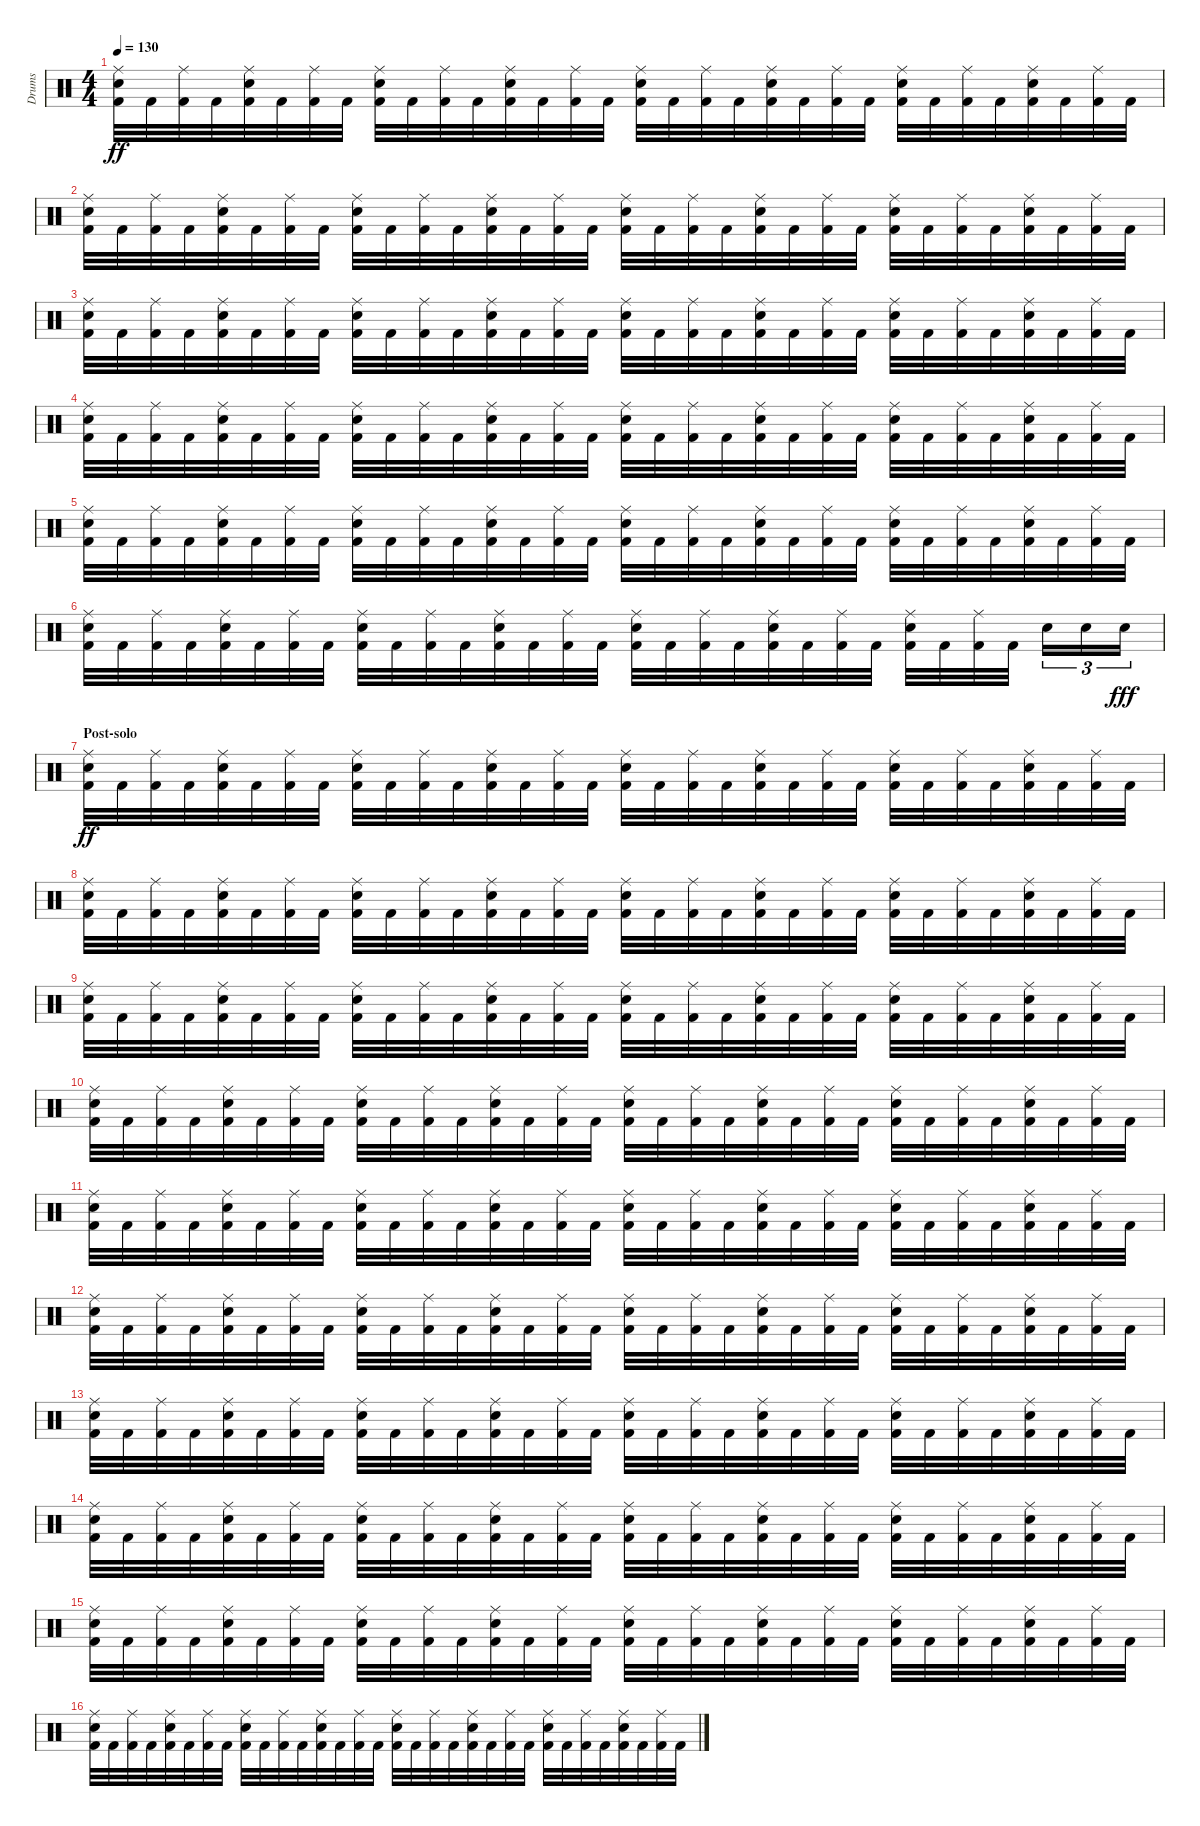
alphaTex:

\track ("Drums" "Drums") {instrument percussion}
\staff {score}
\articulation defaults
\ts (4 4)
\tempo 130
\clef neutral
\ks c
("Electric Snare (hit)" "Ride (middle)" "Kick (hit) 2").32{dy ff} "Kick (hit) 2".32 ("Ride (middle)" "Kick (hit) 2").32 "Kick (hit) 2".32 ("Electric Snare (hit)" "Ride (middle)" "Kick (hit) 2").32 "Kick (hit) 2".32 ("Ride (middle)" "Kick (hit) 2").32 "Kick (hit) 2".32 ("Electric Snare (hit)" "Ride (middle)" "Kick (hit) 2").32 "Kick (hit) 2".32 ("Ride (middle)" "Kick (hit) 2").32 "Kick (hit) 2".32 ("Electric Snare (hit)" "Ride (middle)" "Kick (hit) 2").32 "Kick (hit) 2".32 ("Ride (middle)" "Kick (hit) 2").32 "Kick (hit) 2".32 ("Electric Snare (hit)" "Ride (middle)" "Kick (hit) 2").32 "Kick (hit) 2".32 ("Ride (middle)" "Kick (hit) 2").32 "Kick (hit) 2".32 ("Electric Snare (hit)" "Ride (middle)" "Kick (hit) 2").32 "Kick (hit) 2".32 ("Ride (middle)" "Kick (hit) 2").32 "Kick (hit) 2".32 ("Electric Snare (hit)" "Ride (middle)" "Kick (hit) 2").32 "Kick (hit) 2".32 ("Ride (middle)" "Kick (hit) 2").32 "Kick (hit) 2".32 ("Electric Snare (hit)" "Ride (middle)" "Kick (hit) 2").32 "Kick (hit) 2".32 ("Ride (middle)" "Kick (hit) 2").32 "Kick (hit) 2".32 |
("Electric Snare (hit)" "Ride (middle)" "Kick (hit) 2").32 "Kick (hit) 2".32 ("Ride (middle)" "Kick (hit) 2").32 "Kick (hit) 2".32 ("Electric Snare (hit)" "Ride (middle)" "Kick (hit) 2").32 "Kick (hit) 2".32 ("Ride (middle)" "Kick (hit) 2").32 "Kick (hit) 2".32 ("Electric Snare (hit)" "Ride (middle)" "Kick (hit) 2").32 "Kick (hit) 2".32 ("Ride (middle)" "Kick (hit) 2").32 "Kick (hit) 2".32 ("Electric Snare (hit)" "Ride (middle)" "Kick (hit) 2").32 "Kick (hit) 2".32 ("Ride (middle)" "Kick (hit) 2").32 "Kick (hit) 2".32 ("Electric Snare (hit)" "Ride (middle)" "Kick (hit) 2").32 "Kick (hit) 2".32 ("Ride (middle)" "Kick (hit) 2").32 "Kick (hit) 2".32 ("Electric Snare (hit)" "Ride (middle)" "Kick (hit) 2").32 "Kick (hit) 2".32 ("Ride (middle)" "Kick (hit) 2").32 "Kick (hit) 2".32 ("Electric Snare (hit)" "Ride (middle)" "Kick (hit) 2").32 "Kick (hit) 2".32 ("Ride (middle)" "Kick (hit) 2").32 "Kick (hit) 2".32 ("Electric Snare (hit)" "Ride (middle)" "Kick (hit) 2").32 "Kick (hit) 2".32 ("Ride (middle)" "Kick (hit) 2").32 "Kick (hit) 2".32 |
("Electric Snare (hit)" "Ride (middle)" "Kick (hit) 2").32 "Kick (hit) 2".32 ("Ride (middle)" "Kick (hit) 2").32 "Kick (hit) 2".32 ("Electric Snare (hit)" "Ride (middle)" "Kick (hit) 2").32 "Kick (hit) 2".32 ("Ride (middle)" "Kick (hit) 2").32 "Kick (hit) 2".32 ("Electric Snare (hit)" "Ride (middle)" "Kick (hit) 2").32 "Kick (hit) 2".32 ("Ride (middle)" "Kick (hit) 2").32 "Kick (hit) 2".32 ("Electric Snare (hit)" "Ride (middle)" "Kick (hit) 2").32 "Kick (hit) 2".32 ("Ride (middle)" "Kick (hit) 2").32 "Kick (hit) 2".32 ("Electric Snare (hit)" "Ride (middle)" "Kick (hit) 2").32 "Kick (hit) 2".32 ("Ride (middle)" "Kick (hit) 2").32 "Kick (hit) 2".32 ("Electric Snare (hit)" "Ride (middle)" "Kick (hit) 2").32 "Kick (hit) 2".32 ("Ride (middle)" "Kick (hit) 2").32 "Kick (hit) 2".32 ("Electric Snare (hit)" "Ride (middle)" "Kick (hit) 2").32 "Kick (hit) 2".32 ("Ride (middle)" "Kick (hit) 2").32 "Kick (hit) 2".32 ("Electric Snare (hit)" "Ride (middle)" "Kick (hit) 2").32 "Kick (hit) 2".32 ("Ride (middle)" "Kick (hit) 2").32 "Kick (hit) 2".32 |
("Electric Snare (hit)" "Ride (middle)" "Kick (hit) 2").32 "Kick (hit) 2".32 ("Ride (middle)" "Kick (hit) 2").32 "Kick (hit) 2".32 ("Electric Snare (hit)" "Ride (middle)" "Kick (hit) 2").32 "Kick (hit) 2".32 ("Ride (middle)" "Kick (hit) 2").32 "Kick (hit) 2".32 ("Electric Snare (hit)" "Ride (middle)" "Kick (hit) 2").32 "Kick (hit) 2".32 ("Ride (middle)" "Kick (hit) 2").32 "Kick (hit) 2".32 ("Electric Snare (hit)" "Ride (middle)" "Kick (hit) 2").32 "Kick (hit) 2".32 ("Ride (middle)" "Kick (hit) 2").32 "Kick (hit) 2".32 ("Electric Snare (hit)" "Ride (middle)" "Kick (hit) 2").32 "Kick (hit) 2".32 ("Ride (middle)" "Kick (hit) 2").32 "Kick (hit) 2".32 ("Electric Snare (hit)" "Ride (middle)" "Kick (hit) 2").32 "Kick (hit) 2".32 ("Ride (middle)" "Kick (hit) 2").32 "Kick (hit) 2".32 ("Electric Snare (hit)" "Ride (middle)" "Kick (hit) 2").32 "Kick (hit) 2".32 ("Ride (middle)" "Kick (hit) 2").32 "Kick (hit) 2".32 ("Electric Snare (hit)" "Ride (middle)" "Kick (hit) 2").32 "Kick (hit) 2".32 ("Ride (middle)" "Kick (hit) 2").32 "Kick (hit) 2".32 |
("Electric Snare (hit)" "Ride (middle)" "Kick (hit) 2").32 "Kick (hit) 2".32 ("Ride (middle)" "Kick (hit) 2").32 "Kick (hit) 2".32 ("Electric Snare (hit)" "Ride (middle)" "Kick (hit) 2").32 "Kick (hit) 2".32 ("Ride (middle)" "Kick (hit) 2").32 "Kick (hit) 2".32 ("Electric Snare (hit)" "Ride (middle)" "Kick (hit) 2").32 "Kick (hit) 2".32 ("Ride (middle)" "Kick (hit) 2").32 "Kick (hit) 2".32 ("Electric Snare (hit)" "Ride (middle)" "Kick (hit) 2").32 "Kick (hit) 2".32 ("Ride (middle)" "Kick (hit) 2").32 "Kick (hit) 2".32 ("Electric Snare (hit)" "Ride (middle)" "Kick (hit) 2").32 "Kick (hit) 2".32 ("Ride (middle)" "Kick (hit) 2").32 "Kick (hit) 2".32 ("Electric Snare (hit)" "Ride (middle)" "Kick (hit) 2").32 "Kick (hit) 2".32 ("Ride (middle)" "Kick (hit) 2").32 "Kick (hit) 2".32 ("Electric Snare (hit)" "Ride (middle)" "Kick (hit) 2").32 "Kick (hit) 2".32 ("Ride (middle)" "Kick (hit) 2").32 "Kick (hit) 2".32 ("Electric Snare (hit)" "Ride (middle)" "Kick (hit) 2").32 "Kick (hit) 2".32 ("Ride (middle)" "Kick (hit) 2").32 "Kick (hit) 2".32 |
("Electric Snare (hit)" "Ride (middle)" "Kick (hit) 2").32 "Kick (hit) 2".32 ("Ride (middle)" "Kick (hit) 2").32 "Kick (hit) 2".32 ("Electric Snare (hit)" "Ride (middle)" "Kick (hit) 2").32 "Kick (hit) 2".32 ("Ride (middle)" "Kick (hit) 2").32 "Kick (hit) 2".32 ("Electric Snare (hit)" "Ride (middle)" "Kick (hit) 2").32 "Kick (hit) 2".32 ("Ride (middle)" "Kick (hit) 2").32 "Kick (hit) 2".32 ("Electric Snare (hit)" "Ride (middle)" "Kick (hit) 2").32 "Kick (hit) 2".32 ("Ride (middle)" "Kick (hit) 2").32 "Kick (hit) 2".32 ("Electric Snare (hit)" "Ride (middle)" "Kick (hit) 2").32 "Kick (hit) 2".32 ("Ride (middle)" "Kick (hit) 2").32 "Kick (hit) 2".32 ("Electric Snare (hit)" "Ride (middle)" "Kick (hit) 2").32 "Kick (hit) 2".32 ("Ride (middle)" "Kick (hit) 2").32 "Kick (hit) 2".32 ("Electric Snare (hit)" "Ride (middle)" "Kick (hit) 2").32 "Kick (hit) 2".32 ("Ride (middle)" "Kick (hit) 2").32 "Kick (hit) 2".32 "Electric Snare (hit)".16{tu (3 2)} "Electric Snare (hit)".16{tu (3 2)} "Electric Snare (hit)".16{tu (3 2) dy fff} |
\section ("" "Post-solo")
("Electric Snare (hit)" "Ride (middle)" "Kick (hit) 2").32{dy ff} "Kick (hit) 2".32 ("Ride (middle)" "Kick (hit) 2").32 "Kick (hit) 2".32 ("Electric Snare (hit)" "Ride (middle)" "Kick (hit) 2").32 "Kick (hit) 2".32 ("Ride (middle)" "Kick (hit) 2").32 "Kick (hit) 2".32 ("Electric Snare (hit)" "Ride (middle)" "Kick (hit) 2").32 "Kick (hit) 2".32 ("Ride (middle)" "Kick (hit) 2").32 "Kick (hit) 2".32 ("Electric Snare (hit)" "Ride (middle)" "Kick (hit) 2").32 "Kick (hit) 2".32 ("Ride (middle)" "Kick (hit) 2").32 "Kick (hit) 2".32 ("Electric Snare (hit)" "Ride (middle)" "Kick (hit) 2").32 "Kick (hit) 2".32 ("Ride (middle)" "Kick (hit) 2").32 "Kick (hit) 2".32 ("Electric Snare (hit)" "Ride (middle)" "Kick (hit) 2").32 "Kick (hit) 2".32 ("Ride (middle)" "Kick (hit) 2").32 "Kick (hit) 2".32 ("Electric Snare (hit)" "Ride (middle)" "Kick (hit) 2").32 "Kick (hit) 2".32 ("Ride (middle)" "Kick (hit) 2").32 "Kick (hit) 2".32 ("Electric Snare (hit)" "Ride (middle)" "Kick (hit) 2").32 "Kick (hit) 2".32 ("Ride (middle)" "Kick (hit) 2").32 "Kick (hit) 2".32 |
("Electric Snare (hit)" "Ride (middle)" "Kick (hit) 2").32 "Kick (hit) 2".32 ("Ride (middle)" "Kick (hit) 2").32 "Kick (hit) 2".32 ("Electric Snare (hit)" "Ride (middle)" "Kick (hit) 2").32 "Kick (hit) 2".32 ("Ride (middle)" "Kick (hit) 2").32 "Kick (hit) 2".32 ("Electric Snare (hit)" "Ride (middle)" "Kick (hit) 2").32 "Kick (hit) 2".32 ("Ride (middle)" "Kick (hit) 2").32 "Kick (hit) 2".32 ("Electric Snare (hit)" "Ride (middle)" "Kick (hit) 2").32 "Kick (hit) 2".32 ("Ride (middle)" "Kick (hit) 2").32 "Kick (hit) 2".32 ("Electric Snare (hit)" "Ride (middle)" "Kick (hit) 2").32 "Kick (hit) 2".32 ("Ride (middle)" "Kick (hit) 2").32 "Kick (hit) 2".32 ("Electric Snare (hit)" "Ride (middle)" "Kick (hit) 2").32 "Kick (hit) 2".32 ("Ride (middle)" "Kick (hit) 2").32 "Kick (hit) 2".32 ("Electric Snare (hit)" "Ride (middle)" "Kick (hit) 2").32 "Kick (hit) 2".32 ("Ride (middle)" "Kick (hit) 2").32 "Kick (hit) 2".32 ("Electric Snare (hit)" "Ride (middle)" "Kick (hit) 2").32 "Kick (hit) 2".32 ("Ride (middle)" "Kick (hit) 2").32 "Kick (hit) 2".32 |
("Electric Snare (hit)" "Ride (middle)" "Kick (hit) 2").32 "Kick (hit) 2".32 ("Ride (middle)" "Kick (hit) 2").32 "Kick (hit) 2".32 ("Electric Snare (hit)" "Ride (middle)" "Kick (hit) 2").32 "Kick (hit) 2".32 ("Ride (middle)" "Kick (hit) 2").32 "Kick (hit) 2".32 ("Electric Snare (hit)" "Ride (middle)" "Kick (hit) 2").32 "Kick (hit) 2".32 ("Ride (middle)" "Kick (hit) 2").32 "Kick (hit) 2".32 ("Electric Snare (hit)" "Ride (middle)" "Kick (hit) 2").32 "Kick (hit) 2".32 ("Ride (middle)" "Kick (hit) 2").32 "Kick (hit) 2".32 ("Electric Snare (hit)" "Ride (middle)" "Kick (hit) 2").32 "Kick (hit) 2".32 ("Ride (middle)" "Kick (hit) 2").32 "Kick (hit) 2".32 ("Electric Snare (hit)" "Ride (middle)" "Kick (hit) 2").32 "Kick (hit) 2".32 ("Ride (middle)" "Kick (hit) 2").32 "Kick (hit) 2".32 ("Electric Snare (hit)" "Ride (middle)" "Kick (hit) 2").32 "Kick (hit) 2".32 ("Ride (middle)" "Kick (hit) 2").32 "Kick (hit) 2".32 ("Electric Snare (hit)" "Ride (middle)" "Kick (hit) 2").32 "Kick (hit) 2".32 ("Ride (middle)" "Kick (hit) 2").32 "Kick (hit) 2".32 |
("Electric Snare (hit)" "Ride (middle)" "Kick (hit) 2").32 "Kick (hit) 2".32 ("Ride (middle)" "Kick (hit) 2").32 "Kick (hit) 2".32 ("Electric Snare (hit)" "Ride (middle)" "Kick (hit) 2").32 "Kick (hit) 2".32 ("Ride (middle)" "Kick (hit) 2").32 "Kick (hit) 2".32 ("Electric Snare (hit)" "Ride (middle)" "Kick (hit) 2").32 "Kick (hit) 2".32 ("Ride (middle)" "Kick (hit) 2").32 "Kick (hit) 2".32 ("Electric Snare (hit)" "Ride (middle)" "Kick (hit) 2").32 "Kick (hit) 2".32 ("Ride (middle)" "Kick (hit) 2").32 "Kick (hit) 2".32 ("Electric Snare (hit)" "Ride (middle)" "Kick (hit) 2").32 "Kick (hit) 2".32 ("Ride (middle)" "Kick (hit) 2").32 "Kick (hit) 2".32 ("Electric Snare (hit)" "Ride (middle)" "Kick (hit) 2").32 "Kick (hit) 2".32 ("Ride (middle)" "Kick (hit) 2").32 "Kick (hit) 2".32 ("Electric Snare (hit)" "Ride (middle)" "Kick (hit) 2").32 "Kick (hit) 2".32 ("Ride (middle)" "Kick (hit) 2").32 "Kick (hit) 2".32 ("Electric Snare (hit)" "Ride (middle)" "Kick (hit) 2").32 "Kick (hit) 2".32 ("Ride (middle)" "Kick (hit) 2").32 "Kick (hit) 2".32 |
("Electric Snare (hit)" "Ride (middle)" "Kick (hit) 2").32 "Kick (hit) 2".32 ("Ride (middle)" "Kick (hit) 2").32 "Kick (hit) 2".32 ("Electric Snare (hit)" "Ride (middle)" "Kick (hit) 2").32 "Kick (hit) 2".32 ("Ride (middle)" "Kick (hit) 2").32 "Kick (hit) 2".32 ("Electric Snare (hit)" "Ride (middle)" "Kick (hit) 2").32 "Kick (hit) 2".32 ("Ride (middle)" "Kick (hit) 2").32 "Kick (hit) 2".32 ("Electric Snare (hit)" "Ride (middle)" "Kick (hit) 2").32 "Kick (hit) 2".32 ("Ride (middle)" "Kick (hit) 2").32 "Kick (hit) 2".32 ("Electric Snare (hit)" "Ride (middle)" "Kick (hit) 2").32 "Kick (hit) 2".32 ("Ride (middle)" "Kick (hit) 2").32 "Kick (hit) 2".32 ("Electric Snare (hit)" "Ride (middle)" "Kick (hit) 2").32 "Kick (hit) 2".32 ("Ride (middle)" "Kick (hit) 2").32 "Kick (hit) 2".32 ("Electric Snare (hit)" "Ride (middle)" "Kick (hit) 2").32 "Kick (hit) 2".32 ("Ride (middle)" "Kick (hit) 2").32 "Kick (hit) 2".32 ("Electric Snare (hit)" "Ride (middle)" "Kick (hit) 2").32 "Kick (hit) 2".32 ("Ride (middle)" "Kick (hit) 2").32 "Kick (hit) 2".32 |
("Electric Snare (hit)" "Ride (middle)" "Kick (hit) 2").32 "Kick (hit) 2".32 ("Ride (middle)" "Kick (hit) 2").32 "Kick (hit) 2".32 ("Electric Snare (hit)" "Ride (middle)" "Kick (hit) 2").32 "Kick (hit) 2".32 ("Ride (middle)" "Kick (hit) 2").32 "Kick (hit) 2".32 ("Electric Snare (hit)" "Ride (middle)" "Kick (hit) 2").32 "Kick (hit) 2".32 ("Ride (middle)" "Kick (hit) 2").32 "Kick (hit) 2".32 ("Electric Snare (hit)" "Ride (middle)" "Kick (hit) 2").32 "Kick (hit) 2".32 ("Ride (middle)" "Kick (hit) 2").32 "Kick (hit) 2".32 ("Electric Snare (hit)" "Ride (middle)" "Kick (hit) 2").32 "Kick (hit) 2".32 ("Ride (middle)" "Kick (hit) 2").32 "Kick (hit) 2".32 ("Electric Snare (hit)" "Ride (middle)" "Kick (hit) 2").32 "Kick (hit) 2".32 ("Ride (middle)" "Kick (hit) 2").32 "Kick (hit) 2".32 ("Electric Snare (hit)" "Ride (middle)" "Kick (hit) 2").32 "Kick (hit) 2".32 ("Ride (middle)" "Kick (hit) 2").32 "Kick (hit) 2".32 ("Electric Snare (hit)" "Ride (middle)" "Kick (hit) 2").32 "Kick (hit) 2".32 ("Ride (middle)" "Kick (hit) 2").32 "Kick (hit) 2".32 |
("Electric Snare (hit)" "Ride (middle)" "Kick (hit) 2").32 "Kick (hit) 2".32 ("Ride (middle)" "Kick (hit) 2").32 "Kick (hit) 2".32 ("Electric Snare (hit)" "Ride (middle)" "Kick (hit) 2").32 "Kick (hit) 2".32 ("Ride (middle)" "Kick (hit) 2").32 "Kick (hit) 2".32 ("Electric Snare (hit)" "Ride (middle)" "Kick (hit) 2").32 "Kick (hit) 2".32 ("Ride (middle)" "Kick (hit) 2").32 "Kick (hit) 2".32 ("Electric Snare (hit)" "Ride (middle)" "Kick (hit) 2").32 "Kick (hit) 2".32 ("Ride (middle)" "Kick (hit) 2").32 "Kick (hit) 2".32 ("Electric Snare (hit)" "Ride (middle)" "Kick (hit) 2").32 "Kick (hit) 2".32 ("Ride (middle)" "Kick (hit) 2").32 "Kick (hit) 2".32 ("Electric Snare (hit)" "Ride (middle)" "Kick (hit) 2").32 "Kick (hit) 2".32 ("Ride (middle)" "Kick (hit) 2").32 "Kick (hit) 2".32 ("Electric Snare (hit)" "Ride (middle)" "Kick (hit) 2").32 "Kick (hit) 2".32 ("Ride (middle)" "Kick (hit) 2").32 "Kick (hit) 2".32 ("Electric Snare (hit)" "Ride (middle)" "Kick (hit) 2").32 "Kick (hit) 2".32 ("Ride (middle)" "Kick (hit) 2").32 "Kick (hit) 2".32 |
("Electric Snare (hit)" "Ride (middle)" "Kick (hit) 2").32 "Kick (hit) 2".32 ("Ride (middle)" "Kick (hit) 2").32 "Kick (hit) 2".32 ("Electric Snare (hit)" "Ride (middle)" "Kick (hit) 2").32 "Kick (hit) 2".32 ("Ride (middle)" "Kick (hit) 2").32 "Kick (hit) 2".32 ("Electric Snare (hit)" "Ride (middle)" "Kick (hit) 2").32 "Kick (hit) 2".32 ("Ride (middle)" "Kick (hit) 2").32 "Kick (hit) 2".32 ("Electric Snare (hit)" "Ride (middle)" "Kick (hit) 2").32 "Kick (hit) 2".32 ("Ride (middle)" "Kick (hit) 2").32 "Kick (hit) 2".32 ("Electric Snare (hit)" "Ride (middle)" "Kick (hit) 2").32 "Kick (hit) 2".32 ("Ride (middle)" "Kick (hit) 2").32 "Kick (hit) 2".32 ("Electric Snare (hit)" "Ride (middle)" "Kick (hit) 2").32 "Kick (hit) 2".32 ("Ride (middle)" "Kick (hit) 2").32 "Kick (hit) 2".32 ("Electric Snare (hit)" "Ride (middle)" "Kick (hit) 2").32 "Kick (hit) 2".32 ("Ride (middle)" "Kick (hit) 2").32 "Kick (hit) 2".32 ("Electric Snare (hit)" "Ride (middle)" "Kick (hit) 2").32 "Kick (hit) 2".32 ("Ride (middle)" "Kick (hit) 2").32 "Kick (hit) 2".32 |
("Electric Snare (hit)" "Ride (middle)" "Kick (hit) 2").32 "Kick (hit) 2".32 ("Ride (middle)" "Kick (hit) 2").32 "Kick (hit) 2".32 ("Electric Snare (hit)" "Ride (middle)" "Kick (hit) 2").32 "Kick (hit) 2".32 ("Ride (middle)" "Kick (hit) 2").32 "Kick (hit) 2".32 ("Electric Snare (hit)" "Ride (middle)" "Kick (hit) 2").32 "Kick (hit) 2".32 ("Ride (middle)" "Kick (hit) 2").32 "Kick (hit) 2".32 ("Electric Snare (hit)" "Ride (middle)" "Kick (hit) 2").32 "Kick (hit) 2".32 ("Ride (middle)" "Kick (hit) 2").32 "Kick (hit) 2".32 ("Electric Snare (hit)" "Ride (middle)" "Kick (hit) 2").32 "Kick (hit) 2".32 ("Ride (middle)" "Kick (hit) 2").32 "Kick (hit) 2".32 ("Electric Snare (hit)" "Ride (middle)" "Kick (hit) 2").32 "Kick (hit) 2".32 ("Ride (middle)" "Kick (hit) 2").32 "Kick (hit) 2".32 ("Electric Snare (hit)" "Ride (middle)" "Kick (hit) 2").32 "Kick (hit) 2".32 ("Ride (middle)" "Kick (hit) 2").32 "Kick (hit) 2".32 ("Electric Snare (hit)" "Ride (middle)" "Kick (hit) 2").32 "Kick (hit) 2".32 ("Ride (middle)" "Kick (hit) 2").32 "Kick (hit) 2".32 |
("Electric Snare (hit)" "Ride (middle)" "Kick (hit) 2").32 "Kick (hit) 2".32 ("Ride (middle)" "Kick (hit) 2").32 "Kick (hit) 2".32 ("Electric Snare (hit)" "Ride (middle)" "Kick (hit) 2").32 "Kick (hit) 2".32 ("Ride (middle)" "Kick (hit) 2").32 "Kick (hit) 2".32 ("Electric Snare (hit)" "Ride (middle)" "Kick (hit) 2").32 "Kick (hit) 2".32 ("Ride (middle)" "Kick (hit) 2").32 "Kick (hit) 2".32 ("Electric Snare (hit)" "Ride (middle)" "Kick (hit) 2").32 "Kick (hit) 2".32 ("Ride (middle)" "Kick (hit) 2").32 "Kick (hit) 2".32 ("Electric Snare (hit)" "Ride (middle)" "Kick (hit) 2").32 "Kick (hit) 2".32 ("Ride (middle)" "Kick (hit) 2").32 "Kick (hit) 2".32 ("Electric Snare (hit)" "Ride (middle)" "Kick (hit) 2").32 "Kick (hit) 2".32 ("Ride (middle)" "Kick (hit) 2").32 "Kick (hit) 2".32 ("Electric Snare (hit)" "Ride (middle)" "Kick (hit) 2").32 "Kick (hit) 2".32 ("Ride (middle)" "Kick (hit) 2").32 "Kick (hit) 2".32 ("Electric Snare (hit)" "Ride (middle)" "Kick (hit) 2").32 "Kick (hit) 2".32 ("Ride (middle)" "Kick (hit) 2").32 "Kick (hit) 2".32
